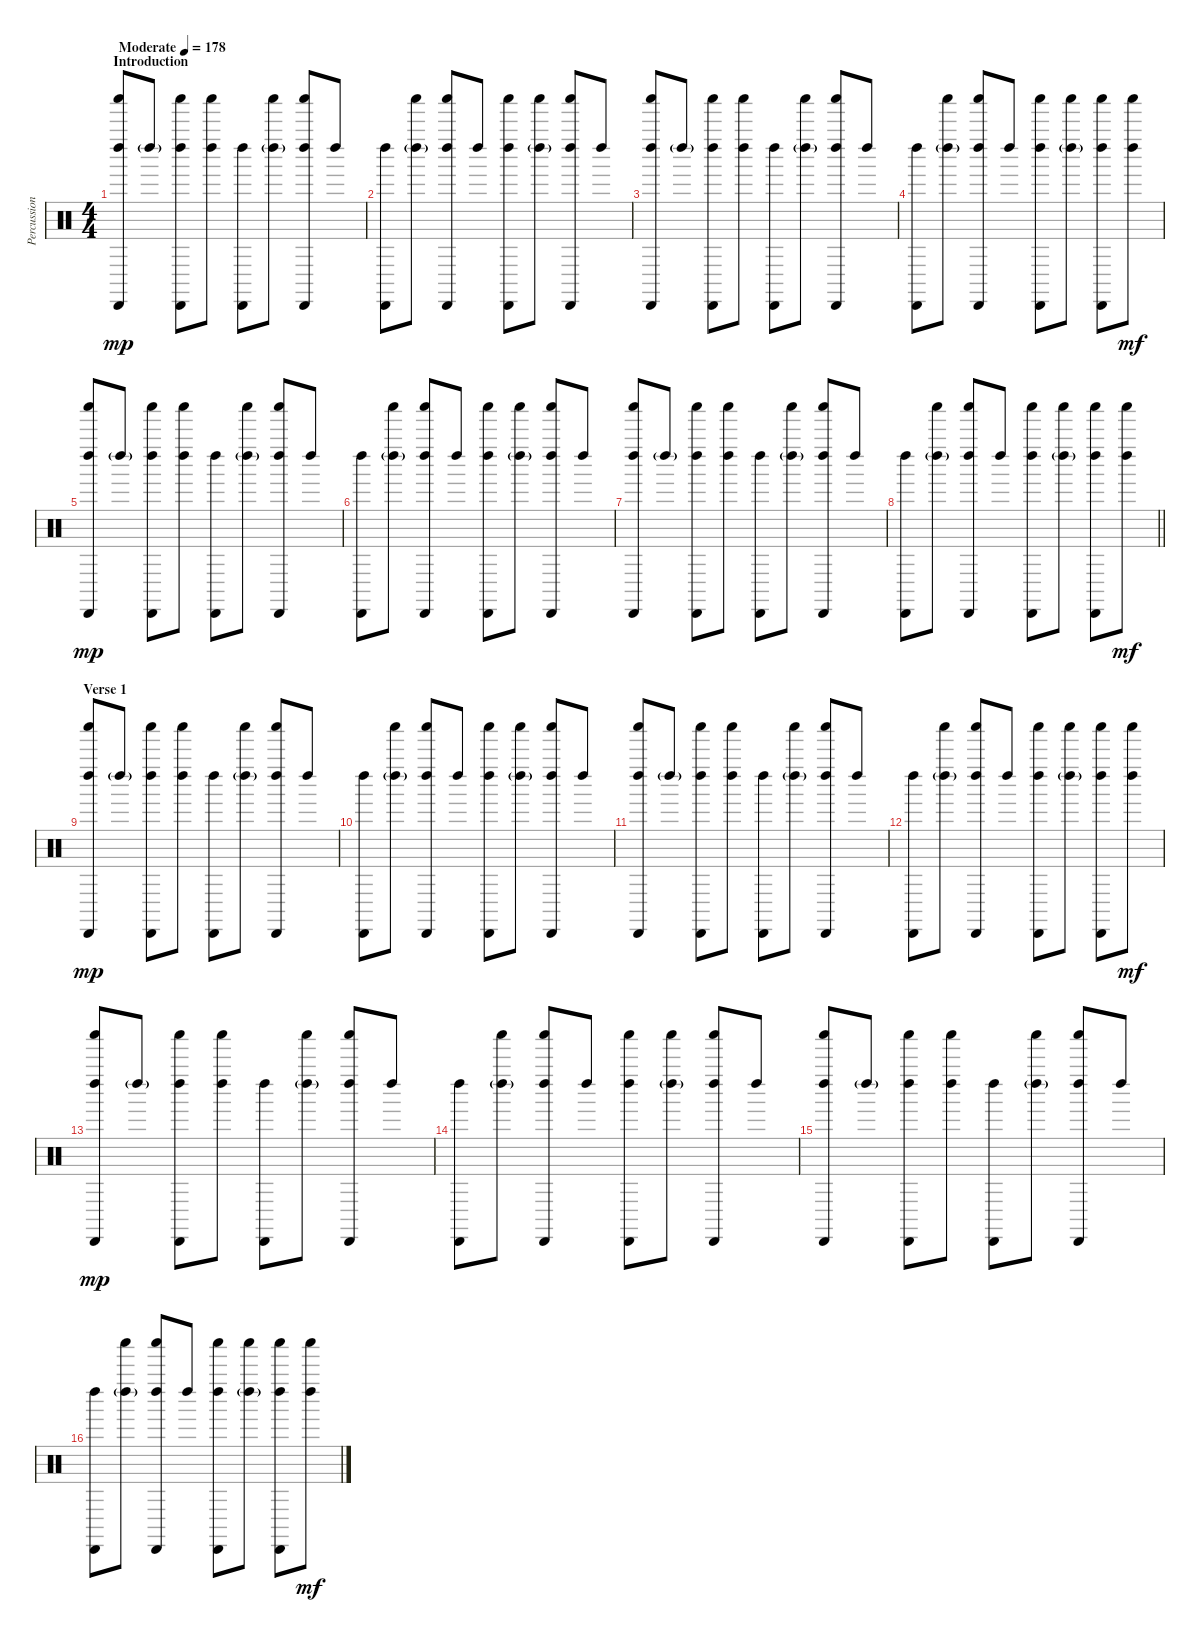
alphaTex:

\track ("Percussion" "Percussion") {instrument percussion}
\staff {score}
\articulation defaults
\ts (4 4)
\section ("" "Introduction")
\tempo (178 "Moderate")
\clef neutral
\ks c
("Left Maraca (hit)" "Shaker (hit)" "Cabasa (hit)").8{dy mp} "Left Maraca (hit)"{g}.8 ("Left Maraca (hit)" "Shaker (hit)" "Cabasa (hit)").8 ("Left Maraca (hit)" "Shaker (hit)").8 ("Left Maraca (hit)" "Cabasa (hit)").8 ("Left Maraca (hit)"{g} "Shaker (hit)").8 ("Left Maraca (hit)" "Shaker (hit)" "Cabasa (hit)").8 "Left Maraca (hit)".8 |
("Left Maraca (hit)" "Cabasa (hit)").8 ("Left Maraca (hit)"{g} "Shaker (hit)").8 ("Left Maraca (hit)" "Shaker (hit)" "Cabasa (hit)").8 "Left Maraca (hit)".8 ("Left Maraca (hit)" "Shaker (hit)" "Cabasa (hit)").8 ("Left Maraca (hit)"{g} "Shaker (hit)").8 ("Left Maraca (hit)" "Shaker (hit)" "Cabasa (hit)").8 "Left Maraca (hit)".8 |
("Left Maraca (hit)" "Shaker (hit)" "Cabasa (hit)").8 "Left Maraca (hit)"{g}.8 ("Left Maraca (hit)" "Shaker (hit)" "Cabasa (hit)").8 ("Left Maraca (hit)" "Shaker (hit)").8 ("Left Maraca (hit)" "Cabasa (hit)").8 ("Left Maraca (hit)"{g} "Shaker (hit)").8 ("Left Maraca (hit)" "Shaker (hit)" "Cabasa (hit)").8 "Left Maraca (hit)".8 |
("Left Maraca (hit)" "Cabasa (hit)").8 ("Left Maraca (hit)"{g} "Shaker (hit)").8 ("Left Maraca (hit)" "Shaker (hit)" "Cabasa (hit)").8 "Left Maraca (hit)".8 ("Left Maraca (hit)" "Shaker (hit)" "Cabasa (hit)").8 ("Left Maraca (hit)"{g} "Shaker (hit)").8 ("Left Maraca (hit)" "Shaker (hit)" "Cabasa (hit)").8 ("Left Maraca (hit)" "Shaker (hit)").8{dy mf} |
("Left Maraca (hit)" "Shaker (hit)" "Cabasa (hit)").8{dy mp} "Left Maraca (hit)"{g}.8 ("Left Maraca (hit)" "Shaker (hit)" "Cabasa (hit)").8 ("Left Maraca (hit)" "Shaker (hit)").8 ("Left Maraca (hit)" "Cabasa (hit)").8 ("Left Maraca (hit)"{g} "Shaker (hit)").8 ("Left Maraca (hit)" "Shaker (hit)" "Cabasa (hit)").8 "Left Maraca (hit)".8 |
("Left Maraca (hit)" "Cabasa (hit)").8 ("Left Maraca (hit)"{g} "Shaker (hit)").8 ("Left Maraca (hit)" "Shaker (hit)" "Cabasa (hit)").8 "Left Maraca (hit)".8 ("Left Maraca (hit)" "Shaker (hit)" "Cabasa (hit)").8 ("Left Maraca (hit)"{g} "Shaker (hit)").8 ("Left Maraca (hit)" "Shaker (hit)" "Cabasa (hit)").8 "Left Maraca (hit)".8 |
("Left Maraca (hit)" "Shaker (hit)" "Cabasa (hit)").8 "Left Maraca (hit)"{g}.8 ("Left Maraca (hit)" "Shaker (hit)" "Cabasa (hit)").8 ("Left Maraca (hit)" "Shaker (hit)").8 ("Left Maraca (hit)" "Cabasa (hit)").8 ("Left Maraca (hit)"{g} "Shaker (hit)").8 ("Left Maraca (hit)" "Shaker (hit)" "Cabasa (hit)").8 "Left Maraca (hit)".8 |
\barLineRight lightlight
("Left Maraca (hit)" "Cabasa (hit)").8 ("Left Maraca (hit)"{g} "Shaker (hit)").8 ("Left Maraca (hit)" "Shaker (hit)" "Cabasa (hit)").8 "Left Maraca (hit)".8 ("Left Maraca (hit)" "Shaker (hit)" "Cabasa (hit)").8 ("Left Maraca (hit)"{g} "Shaker (hit)").8 ("Left Maraca (hit)" "Shaker (hit)" "Cabasa (hit)").8 ("Left Maraca (hit)" "Shaker (hit)").8{dy mf} |
\section ("" "Verse 1")
("Left Maraca (hit)" "Shaker (hit)" "Cabasa (hit)").8{dy mp} "Left Maraca (hit)"{g}.8 ("Left Maraca (hit)" "Shaker (hit)" "Cabasa (hit)").8 ("Left Maraca (hit)" "Shaker (hit)").8 ("Left Maraca (hit)" "Cabasa (hit)").8 ("Left Maraca (hit)"{g} "Shaker (hit)").8 ("Left Maraca (hit)" "Shaker (hit)" "Cabasa (hit)").8 "Left Maraca (hit)".8 |
("Left Maraca (hit)" "Cabasa (hit)").8 ("Left Maraca (hit)"{g} "Shaker (hit)").8 ("Left Maraca (hit)" "Shaker (hit)" "Cabasa (hit)").8 "Left Maraca (hit)".8 ("Left Maraca (hit)" "Shaker (hit)" "Cabasa (hit)").8 ("Left Maraca (hit)"{g} "Shaker (hit)").8 ("Left Maraca (hit)" "Shaker (hit)" "Cabasa (hit)").8 "Left Maraca (hit)".8 |
("Left Maraca (hit)" "Shaker (hit)" "Cabasa (hit)").8 "Left Maraca (hit)"{g}.8 ("Left Maraca (hit)" "Shaker (hit)" "Cabasa (hit)").8 ("Left Maraca (hit)" "Shaker (hit)").8 ("Left Maraca (hit)" "Cabasa (hit)").8 ("Left Maraca (hit)"{g} "Shaker (hit)").8 ("Left Maraca (hit)" "Shaker (hit)" "Cabasa (hit)").8 "Left Maraca (hit)".8 |
("Left Maraca (hit)" "Cabasa (hit)").8 ("Left Maraca (hit)"{g} "Shaker (hit)").8 ("Left Maraca (hit)" "Shaker (hit)" "Cabasa (hit)").8 "Left Maraca (hit)".8 ("Left Maraca (hit)" "Shaker (hit)" "Cabasa (hit)").8 ("Left Maraca (hit)"{g} "Shaker (hit)").8 ("Left Maraca (hit)" "Shaker (hit)" "Cabasa (hit)").8 ("Left Maraca (hit)" "Shaker (hit)").8{dy mf} |
("Left Maraca (hit)" "Shaker (hit)" "Cabasa (hit)").8{dy mp} "Left Maraca (hit)"{g}.8 ("Left Maraca (hit)" "Shaker (hit)" "Cabasa (hit)").8 ("Left Maraca (hit)" "Shaker (hit)").8 ("Left Maraca (hit)" "Cabasa (hit)").8 ("Left Maraca (hit)"{g} "Shaker (hit)").8 ("Left Maraca (hit)" "Shaker (hit)" "Cabasa (hit)").8 "Left Maraca (hit)".8 |
("Left Maraca (hit)" "Cabasa (hit)").8 ("Left Maraca (hit)"{g} "Shaker (hit)").8 ("Left Maraca (hit)" "Shaker (hit)" "Cabasa (hit)").8 "Left Maraca (hit)".8 ("Left Maraca (hit)" "Shaker (hit)" "Cabasa (hit)").8 ("Left Maraca (hit)"{g} "Shaker (hit)").8 ("Left Maraca (hit)" "Shaker (hit)" "Cabasa (hit)").8 "Left Maraca (hit)".8 |
("Left Maraca (hit)" "Shaker (hit)" "Cabasa (hit)").8 "Left Maraca (hit)"{g}.8 ("Left Maraca (hit)" "Shaker (hit)" "Cabasa (hit)").8 ("Left Maraca (hit)" "Shaker (hit)").8 ("Left Maraca (hit)" "Cabasa (hit)").8 ("Left Maraca (hit)"{g} "Shaker (hit)").8 ("Left Maraca (hit)" "Shaker (hit)" "Cabasa (hit)").8 "Left Maraca (hit)".8 |
("Left Maraca (hit)" "Cabasa (hit)").8 ("Left Maraca (hit)"{g} "Shaker (hit)").8 ("Left Maraca (hit)" "Shaker (hit)" "Cabasa (hit)").8 "Left Maraca (hit)".8 ("Left Maraca (hit)" "Shaker (hit)" "Cabasa (hit)").8 ("Left Maraca (hit)"{g} "Shaker (hit)").8 ("Left Maraca (hit)" "Shaker (hit)" "Cabasa (hit)").8 ("Left Maraca (hit)" "Shaker (hit)").8{dy mf}
